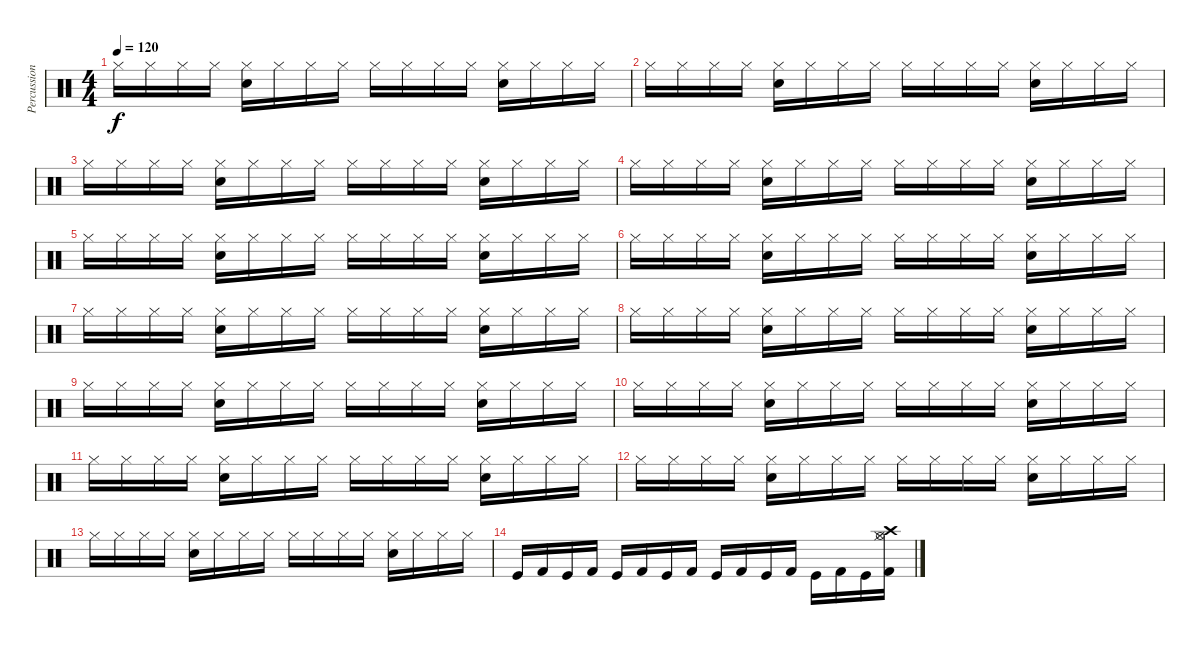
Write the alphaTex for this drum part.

\track ("Percussion" "Percussion") {instrument percussion}
\staff {score}
\articulation defaults
\ts (4 4)
\tempo 120
\clef neutral
\ks c "Hi-Hat (closed)".16{dy f} "Hi-Hat (closed)".16 "Hi-Hat (closed)".16 "Hi-Hat (closed)".16
("Hi-Hat (closed)" "Electric Snare (hit)").16 "Hi-Hat (closed)".16 "Hi-Hat (closed)".16 "Hi-Hat (closed)".16 "Hi-Hat (closed)".16 "Hi-Hat (closed)".16 "Hi-Hat (closed)".16 "Hi-Hat (closed)".16 ("Hi-Hat (closed)" "Electric Snare (hit)").16 "Hi-Hat (closed)".16 "Hi-Hat (closed)".16 "Hi-Hat (closed)".16 |
"Hi-Hat (closed)".16 "Hi-Hat (closed)".16 "Hi-Hat (closed)".16 "Hi-Hat (closed)".16 ("Hi-Hat (closed)" "Electric Snare (hit)").16 "Hi-Hat (closed)".16 "Hi-Hat (closed)".16 "Hi-Hat (closed)".16 "Hi-Hat (closed)".16 "Hi-Hat (closed)".16 "Hi-Hat (closed)".16 "Hi-Hat (closed)".16 ("Hi-Hat (closed)" "Electric Snare (hit)").16 "Hi-Hat (closed)".16 "Hi-Hat (closed)".16 "Hi-Hat (closed)".16 |
"Hi-Hat (closed)".16 "Hi-Hat (closed)".16 "Hi-Hat (closed)".16 "Hi-Hat (closed)".16 ("Hi-Hat (closed)" "Electric Snare (hit)").16 "Hi-Hat (closed)".16 "Hi-Hat (closed)".16 "Hi-Hat (closed)".16 "Hi-Hat (closed)".16 "Hi-Hat (closed)".16 "Hi-Hat (closed)".16 "Hi-Hat (closed)".16 ("Hi-Hat (closed)" "Electric Snare (hit)").16 "Hi-Hat (closed)".16 "Hi-Hat (closed)".16 "Hi-Hat (closed)".16 |
"Hi-Hat (closed)".16 "Hi-Hat (closed)".16 "Hi-Hat (closed)".16 "Hi-Hat (closed)".16 ("Hi-Hat (closed)" "Electric Snare (hit)").16 "Hi-Hat (closed)".16 "Hi-Hat (closed)".16 "Hi-Hat (closed)".16 "Hi-Hat (closed)".16 "Hi-Hat (closed)".16 "Hi-Hat (closed)".16 "Hi-Hat (closed)".16 ("Hi-Hat (closed)" "Electric Snare (hit)").16 "Hi-Hat (closed)".16 "Hi-Hat (closed)".16 "Hi-Hat (closed)".16 |
"Hi-Hat (closed)".16 "Hi-Hat (closed)".16 "Hi-Hat (closed)".16 "Hi-Hat (closed)".16 ("Hi-Hat (closed)" "Electric Snare (hit)").16 "Hi-Hat (closed)".16 "Hi-Hat (closed)".16 "Hi-Hat (closed)".16 "Hi-Hat (closed)".16 "Hi-Hat (closed)".16 "Hi-Hat (closed)".16 "Hi-Hat (closed)".16 ("Hi-Hat (closed)" "Electric Snare (hit)").16 "Hi-Hat (closed)".16 "Hi-Hat (closed)".16 "Hi-Hat (closed)".16 |
"Hi-Hat (closed)".16 "Hi-Hat (closed)".16 "Hi-Hat (closed)".16 "Hi-Hat (closed)".16 ("Hi-Hat (closed)" "Electric Snare (hit)").16 "Hi-Hat (closed)".16 "Hi-Hat (closed)".16 "Hi-Hat (closed)".16 "Hi-Hat (closed)".16 "Hi-Hat (closed)".16 "Hi-Hat (closed)".16 "Hi-Hat (closed)".16 ("Hi-Hat (closed)" "Electric Snare (hit)").16 "Hi-Hat (closed)".16 "Hi-Hat (closed)".16 "Hi-Hat (closed)".16 |
"Hi-Hat (closed)".16 "Hi-Hat (closed)".16 "Hi-Hat (closed)".16 "Hi-Hat (closed)".16 ("Hi-Hat (closed)" "Electric Snare (hit)").16 "Hi-Hat (closed)".16 "Hi-Hat (closed)".16 "Hi-Hat (closed)".16 "Hi-Hat (closed)".16 "Hi-Hat (closed)".16 "Hi-Hat (closed)".16 "Hi-Hat (closed)".16 ("Hi-Hat (closed)" "Electric Snare (hit)").16 "Hi-Hat (closed)".16 "Hi-Hat (closed)".16 "Hi-Hat (closed)".16 |
"Hi-Hat (closed)".16 "Hi-Hat (closed)".16 "Hi-Hat (closed)".16 "Hi-Hat (closed)".16 ("Hi-Hat (closed)" "Electric Snare (hit)").16 "Hi-Hat (closed)".16 "Hi-Hat (closed)".16 "Hi-Hat (closed)".16 "Hi-Hat (closed)".16 "Hi-Hat (closed)".16 "Hi-Hat (closed)".16 "Hi-Hat (closed)".16 ("Hi-Hat (closed)" "Electric Snare (hit)").16 "Hi-Hat (closed)".16 "Hi-Hat (closed)".16 "Hi-Hat (closed)".16 |
"Hi-Hat (closed)".16 "Hi-Hat (closed)".16 "Hi-Hat (closed)".16 "Hi-Hat (closed)".16 ("Hi-Hat (closed)" "Electric Snare (hit)").16 "Hi-Hat (closed)".16 "Hi-Hat (closed)".16 "Hi-Hat (closed)".16 "Hi-Hat (closed)".16 "Hi-Hat (closed)".16 "Hi-Hat (closed)".16 "Hi-Hat (closed)".16 ("Hi-Hat (closed)" "Electric Snare (hit)").16 "Hi-Hat (closed)".16 "Hi-Hat (closed)".16 "Hi-Hat (closed)".16 |
"Hi-Hat (closed)".16 "Hi-Hat (closed)".16 "Hi-Hat (closed)".16 "Hi-Hat (closed)".16 ("Hi-Hat (closed)" "Electric Snare (hit)").16 "Hi-Hat (closed)".16 "Hi-Hat (closed)".16 "Hi-Hat (closed)".16 "Hi-Hat (closed)".16 "Hi-Hat (closed)".16 "Hi-Hat (closed)".16 "Hi-Hat (closed)".16 ("Hi-Hat (closed)" "Electric Snare (hit)").16 "Hi-Hat (closed)".16 "Hi-Hat (closed)".16 "Hi-Hat (closed)".16 |
"Hi-Hat (closed)".16 "Hi-Hat (closed)".16 "Hi-Hat (closed)".16 "Hi-Hat (closed)".16 ("Hi-Hat (closed)" "Electric Snare (hit)").16 "Hi-Hat (closed)".16 "Hi-Hat (closed)".16 "Hi-Hat (closed)".16 "Hi-Hat (closed)".16 "Hi-Hat (closed)".16 "Hi-Hat (closed)".16 "Hi-Hat (closed)".16 ("Hi-Hat (closed)" "Electric Snare (hit)").16 "Hi-Hat (closed)".16 "Hi-Hat (closed)".16 "Hi-Hat (closed)".16 |
"Hi-Hat (closed)".16 "Hi-Hat (closed)".16 "Hi-Hat (closed)".16 "Hi-Hat (closed)".16 ("Hi-Hat (closed)" "Electric Snare (hit)").16 "Hi-Hat (closed)".16 "Hi-Hat (closed)".16 "Hi-Hat (closed)".16 "Hi-Hat (closed)".16 "Hi-Hat (closed)".16 "Hi-Hat (closed)".16 "Hi-Hat (closed)".16 ("Hi-Hat (closed)" "Electric Snare (hit)").16 "Hi-Hat (closed)".16 "Hi-Hat (closed)".16 "Hi-Hat (closed)".16 |
"Hi-Hat (closed)".16 "Hi-Hat (closed)".16 "Hi-Hat (closed)".16 "Hi-Hat (closed)".16 ("Hi-Hat (closed)" "Electric Snare (hit)").16 "Hi-Hat (closed)".16 "Hi-Hat (closed)".16 "Hi-Hat (closed)".16 "Hi-Hat (closed)".16 "Hi-Hat (closed)".16 "Hi-Hat (closed)".16 "Hi-Hat (closed)".16 ("Hi-Hat (closed)" "Electric Snare (hit)").16 "Hi-Hat (closed)".16 "Hi-Hat (closed)".16 "Hi-Hat (closed)".16 |
"Kick (hit)".16 "Kick (hit) 2".16 "Kick (hit)".16 "Kick (hit) 2".16 "Kick (hit)".16 "Kick (hit) 2".16 "Kick (hit)".16 "Kick (hit) 2".16 "Kick (hit)".16 "Kick (hit) 2".16 "Kick (hit)".16 "Kick (hit) 2".16 "Kick (hit)".16 "Kick (hit) 2".16 "Kick (hit)".16 ("Kick (hit) 2" "Crash high (hit)" "Hi-Hat (open)" "Hi-Hat (closed)").16
